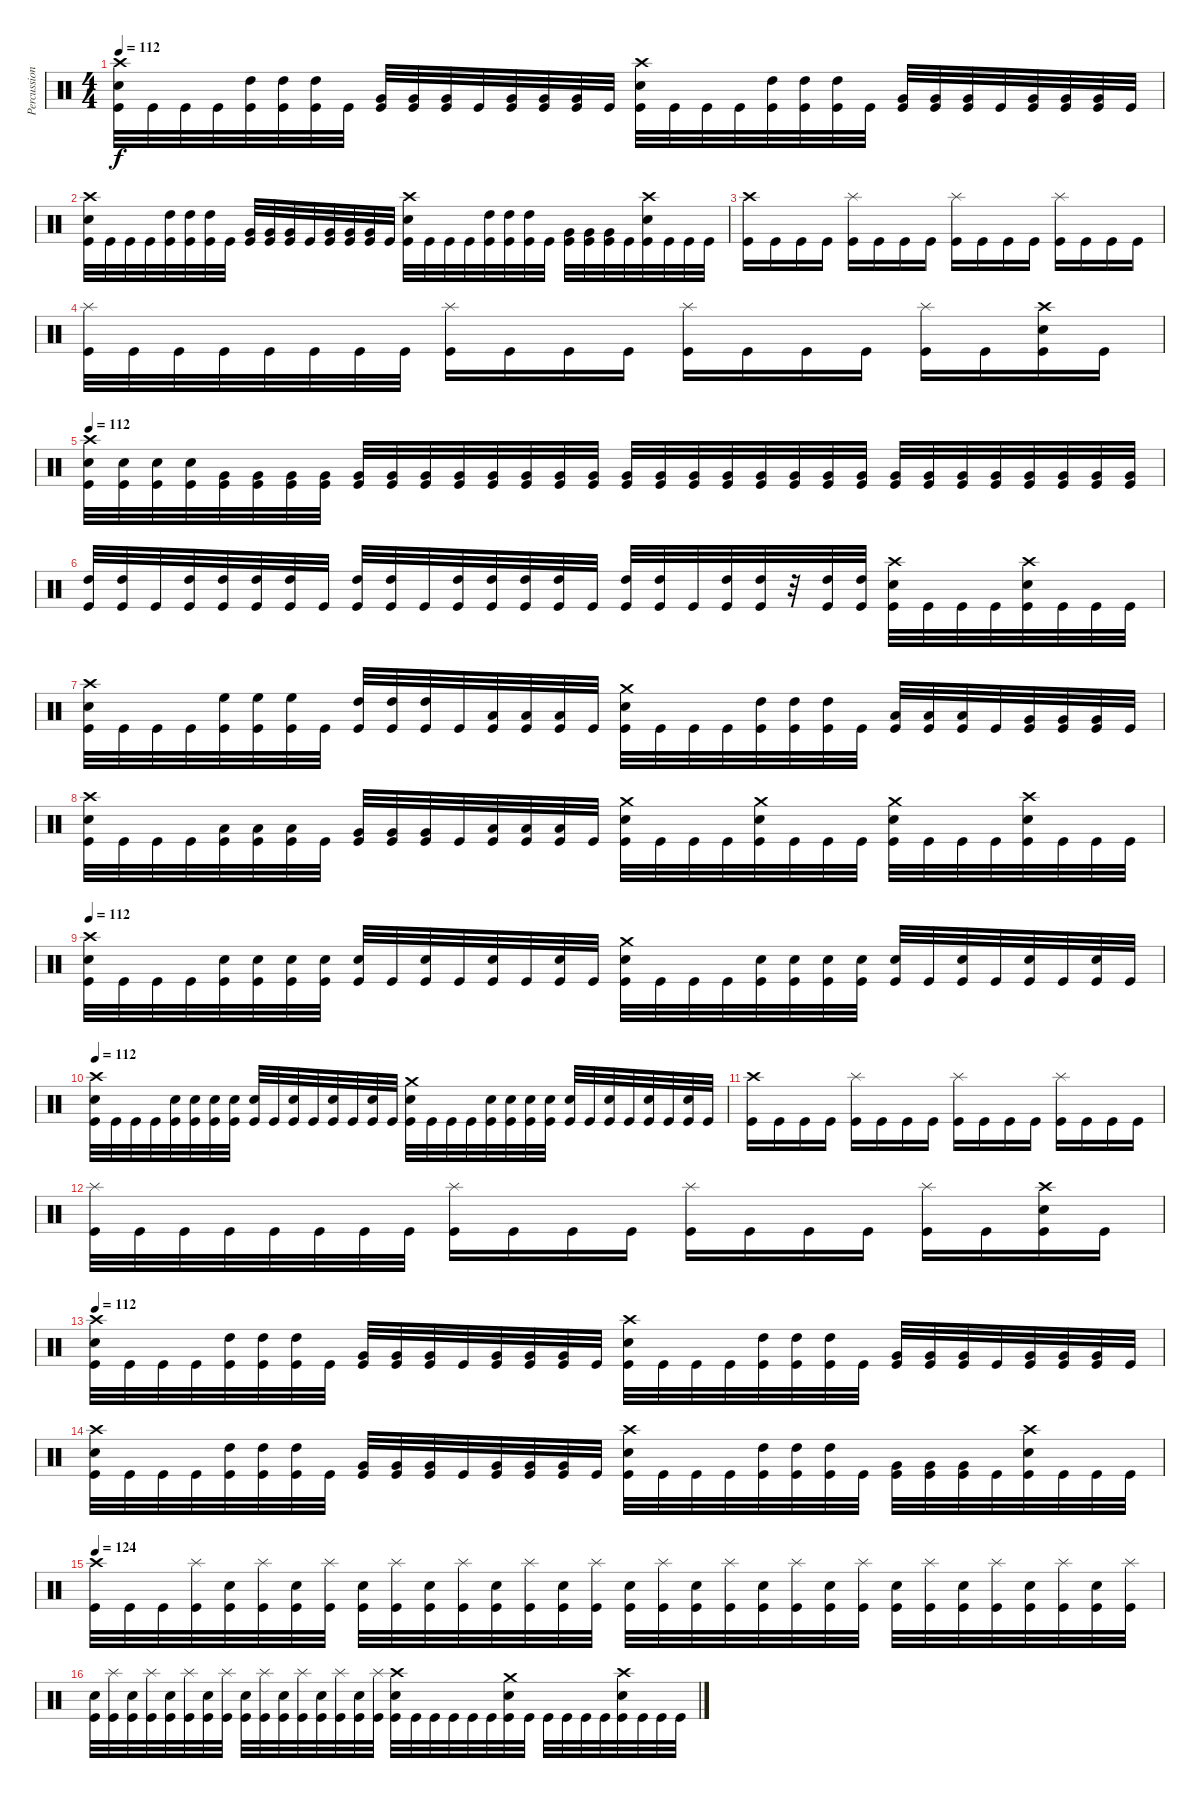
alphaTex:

\track ("Percussion" "Percussion") {instrument percussion}
\staff {score}
\articulation defaults
\ts (4 4)
\tempo 112
\clef neutral
\ks c
("Crash high (hit)" "Electric Snare (hit)" "Kick (hit)").32{dy f} "Kick (hit)".32 "Kick (hit)".32 "Kick (hit)".32 ("High Tom (hit)" "Kick (hit)").32 ("High Tom (hit)" "Kick (hit)").32 ("High Tom (hit)" "Kick (hit)").32 "Kick (hit)".32 ("Very Low Tom (hit)" "Kick (hit)").32 ("Very Low Tom (hit)" "Kick (hit)").32 ("Very Low Tom (hit)" "Kick (hit)").32 "Kick (hit)".32 ("Very Low Tom (hit)" "Kick (hit)").32 ("Very Low Tom (hit)" "Kick (hit)").32 ("Very Low Tom (hit)" "Kick (hit)").32 "Kick (hit)".32 ("Crash high (hit)" "Electric Snare (hit)" "Kick (hit)").32 "Kick (hit)".32 "Kick (hit)".32 "Kick (hit)".32 ("High Tom (hit)" "Kick (hit)").32 ("High Tom (hit)" "Kick (hit)").32 ("High Tom (hit)" "Kick (hit)").32 "Kick (hit)".32 ("Very Low Tom (hit)" "Kick (hit)").32 ("Very Low Tom (hit)" "Kick (hit)").32 ("Very Low Tom (hit)" "Kick (hit)").32 "Kick (hit)".32 ("Very Low Tom (hit)" "Kick (hit)").32 ("Very Low Tom (hit)" "Kick (hit)").32 ("Very Low Tom (hit)" "Kick (hit)").32 "Kick (hit)".32 |
("Crash high (hit)" "Electric Snare (hit)" "Kick (hit)").32 "Kick (hit)".32 "Kick (hit)".32 "Kick (hit)".32 ("High Tom (hit)" "Kick (hit)").32 ("High Tom (hit)" "Kick (hit)").32 ("High Tom (hit)" "Kick (hit)").32 "Kick (hit)".32 ("Very Low Tom (hit)" "Kick (hit)").32 ("Very Low Tom (hit)" "Kick (hit)").32 ("Very Low Tom (hit)" "Kick (hit)").32 "Kick (hit)".32 ("Very Low Tom (hit)" "Kick (hit)").32 ("Very Low Tom (hit)" "Kick (hit)").32 ("Very Low Tom (hit)" "Kick (hit)").32 "Kick (hit)".32 ("Crash high (hit)" "Electric Snare (hit)" "Kick (hit)").32 "Kick (hit)".32 "Kick (hit)".32 "Kick (hit)".32 ("High Tom (hit)" "Kick (hit)").32 ("High Tom (hit)" "Kick (hit)").32 ("High Tom (hit)" "Kick (hit)").32 "Kick (hit)".32 ("Very Low Tom (hit)" "Kick (hit)").32 ("Very Low Tom (hit)" "Kick (hit)").32 ("Very Low Tom (hit)" "Kick (hit)").32 "Kick (hit)".32 ("Crash high (hit)" "Electric Snare (hit)" "Kick (hit)").32 "Kick (hit)".32 "Kick (hit)".32 "Kick (hit)".32 |
("Crash high (hit)" "Kick (hit)").16 "Kick (hit)".16 "Kick (hit)".16 "Kick (hit)".16 ("Splash (hit)" "Kick (hit)").16 "Kick (hit)".16 "Kick (hit)".16 "Kick (hit)".16 ("Splash (hit)" "Kick (hit)").16 "Kick (hit)".16 "Kick (hit)".16 "Kick (hit)".16 ("Splash (hit)" "Kick (hit)").16 "Kick (hit)".16 "Kick (hit)".16 "Kick (hit)".16 |
("Splash (hit)" "Kick (hit)").32 "Kick (hit)".32 "Kick (hit)".32 "Kick (hit)".32 "Kick (hit)".32 "Kick (hit)".32 "Kick (hit)".32 "Kick (hit)".32 ("Splash (hit)" "Kick (hit)").16 "Kick (hit)".16 "Kick (hit)".16 "Kick (hit)".16 ("Splash (hit)" "Kick (hit)").16 "Kick (hit)".16 "Kick (hit)".16 "Kick (hit)".16 ("Splash (hit)" "Kick (hit)").16 "Kick (hit)".16 ("Crash high (hit)" "Electric Snare (hit)" "Kick (hit)").16 "Kick (hit)".16 |
\tempo 112
("Crash high (hit)" "Electric Snare (hit)" "Kick (hit)").32 ("Electric Snare (hit)" "Kick (hit)").32 ("Electric Snare (hit)" "Kick (hit)").32 ("Electric Snare (hit)" "Kick (hit)").32 ("Very Low Tom (hit)" "Kick (hit)").32 ("Very Low Tom (hit)" "Kick (hit)").32 ("Very Low Tom (hit)" "Kick (hit)").32 ("Very Low Tom (hit)" "Kick (hit)").32 ("Very Low Tom (hit)" "Kick (hit)").32 ("Very Low Tom (hit)" "Kick (hit)").32 ("Very Low Tom (hit)" "Kick (hit)").32 ("Very Low Tom (hit)" "Kick (hit)").32 ("Very Low Tom (hit)" "Kick (hit)").32 ("Very Low Tom (hit)" "Kick (hit)").32 ("Very Low Tom (hit)" "Kick (hit)").32 ("Very Low Tom (hit)" "Kick (hit)").32 ("Very Low Tom (hit)" "Kick (hit)").32 ("Very Low Tom (hit)" "Kick (hit)").32 ("Very Low Tom (hit)" "Kick (hit)").32 ("Very Low Tom (hit)" "Kick (hit)").32 ("Very Low Tom (hit)" "Kick (hit)").32 ("Very Low Tom (hit)" "Kick (hit)").32 ("Very Low Tom (hit)" "Kick (hit)").32 ("Very Low Tom (hit)" "Kick (hit)").32 ("Very Low Tom (hit)" "Kick (hit)").32 ("Very Low Tom (hit)" "Kick (hit)").32 ("Very Low Tom (hit)" "Kick (hit)").32 ("Very Low Tom (hit)" "Kick (hit)").32 ("Very Low Tom (hit)" "Kick (hit)").32 ("Very Low Tom (hit)" "Kick (hit)").32 ("Very Low Tom (hit)" "Kick (hit)").32 ("Very Low Tom (hit)" "Kick (hit)").32 |
("High Tom (hit)" "Kick (hit)").32 ("High Tom (hit)" "Kick (hit)").32 "Kick (hit)".32 ("High Tom (hit)" "Kick (hit)").32 ("High Tom (hit)" "Kick (hit)").32 ("High Tom (hit)" "Kick (hit)").32 ("High Tom (hit)" "Kick (hit)").32 "Kick (hit)".32 ("High Tom (hit)" "Kick (hit)").32 ("High Tom (hit)" "Kick (hit)").32 "Kick (hit)".32 ("High Tom (hit)" "Kick (hit)").32 ("High Tom (hit)" "Kick (hit)").32 ("High Tom (hit)" "Kick (hit)").32 ("High Tom (hit)" "Kick (hit)").32 "Kick (hit)".32 ("High Tom (hit)" "Kick (hit)").32 ("High Tom (hit)" "Kick (hit)").32 "Kick (hit)".32 ("High Tom (hit)" "Kick (hit)").32 ("High Tom (hit)" "Kick (hit)").32 r.32 ("High Tom (hit)" "Kick (hit)").32 ("High Tom (hit)" "Kick (hit)").32 ("Crash high (hit)" "Electric Snare (hit)" "Kick (hit)").32 "Kick (hit)".32 "Kick (hit)".32 "Kick (hit)".32 ("Crash high (hit)" "Electric Snare (hit)" "Kick (hit)").32 "Kick (hit)".32 "Kick (hit)".32 "Kick (hit)".32 |
("Crash high (hit)" "Electric Snare (hit)" "Kick (hit)").32 "Kick (hit)".32 "Kick (hit)".32 "Kick (hit)".32 ("High Floor Tom (hit)" "Kick (hit)").32 ("High Floor Tom (hit)" "Kick (hit)").32 ("High Floor Tom (hit)" "Kick (hit)").32 "Kick (hit)".32 ("High Tom (hit)" "Kick (hit)").32 ("High Tom (hit)" "Kick (hit)").32 ("High Tom (hit)" "Kick (hit)").32 "Kick (hit)".32 ("Low Tom (hit)" "Kick (hit)").32 ("Low Tom (hit)" "Kick (hit)").32 ("Low Tom (hit)" "Kick (hit)").32 "Kick (hit)".32 ("Crash medium (hit)" "Electric Snare (hit)" "Kick (hit)").32 "Kick (hit)".32 "Kick (hit)".32 "Kick (hit)".32 ("High Tom (hit)" "Kick (hit)").32 ("High Tom (hit)" "Kick (hit)").32 ("High Tom (hit)" "Kick (hit)").32 "Kick (hit)".32 ("Low Tom (hit)" "Kick (hit)").32 ("Low Tom (hit)" "Kick (hit)").32 ("Low Tom (hit)" "Kick (hit)").32 "Kick (hit)".32 ("Very Low Tom (hit)" "Kick (hit)").32 ("Very Low Tom (hit)" "Kick (hit)").32 ("Very Low Tom (hit)" "Kick (hit)").32 "Kick (hit)".32 |
("Crash high (hit)" "Electric Snare (hit)" "Kick (hit)").32 "Kick (hit)".32 "Kick (hit)".32 "Kick (hit)".32 ("Low Tom (hit)" "Kick (hit)").32 ("Low Tom (hit)" "Kick (hit)").32 ("Low Tom (hit)" "Kick (hit)").32 "Kick (hit)".32 ("Very Low Tom (hit)" "Kick (hit)").32 ("Very Low Tom (hit)" "Kick (hit)").32 ("Very Low Tom (hit)" "Kick (hit)").32 "Kick (hit)".32 ("Low Floor Tom (hit)" "Kick (hit)").32 ("Low Floor Tom (hit)" "Kick (hit)").32 ("Low Floor Tom (hit)" "Kick (hit)").32 "Kick (hit)".32 ("Crash medium (hit)" "Electric Snare (hit)" "Kick (hit)").32 "Kick (hit)".32 "Kick (hit)".32 "Kick (hit)".32 ("Crash medium (hit)" "Electric Snare (hit)" "Kick (hit)").32 "Kick (hit)".32 "Kick (hit)".32 "Kick (hit)".32 ("Crash medium (hit)" "Electric Snare (hit)" "Kick (hit)").32 "Kick (hit)".32 "Kick (hit)".32 "Kick (hit)".32 ("Crash high (hit)" "Electric Snare (hit)" "Kick (hit)").32 "Kick (hit)".32 "Kick (hit)".32 "Kick (hit)".32 |
\tempo 112
("Crash high (hit)" "Electric Snare (hit)" "Kick (hit)").32 "Kick (hit)".32 "Kick (hit)".32 "Kick (hit)".32 ("Electric Snare (hit)" "Kick (hit)").32 ("Electric Snare (hit)" "Kick (hit)").32 ("Electric Snare (hit)" "Kick (hit)").32 ("Electric Snare (hit)" "Kick (hit)").32 ("Electric Snare (hit)"{pm} "Kick (hit)").32 "Kick (hit)".32 ("Electric Snare (hit)"{pm} "Kick (hit)").32 "Kick (hit)".32 ("Electric Snare (hit)"{pm} "Kick (hit)").32 "Kick (hit)".32 ("Electric Snare (hit)"{pm} "Kick (hit)").32 "Kick (hit)".32 ("Crash medium (hit)" "Electric Snare (hit)" "Kick (hit)").32 "Kick (hit)".32 "Kick (hit)".32 "Kick (hit)".32 ("Electric Snare (hit)" "Kick (hit)").32 ("Electric Snare (hit)" "Kick (hit)").32 ("Electric Snare (hit)" "Kick (hit)").32 ("Electric Snare (hit)" "Kick (hit)").32 ("Electric Snare (hit)"{pm} "Kick (hit)").32 "Kick (hit)".32 ("Electric Snare (hit)"{pm} "Kick (hit)").32 "Kick (hit)".32 ("Electric Snare (hit)"{pm} "Kick (hit)").32 "Kick (hit)".32 ("Electric Snare (hit)"{pm} "Kick (hit)").32 "Kick (hit)".32 |
\tempo 112
("Crash high (hit)" "Electric Snare (hit)" "Kick (hit)").32 "Kick (hit)".32 "Kick (hit)".32 "Kick (hit)".32 ("Electric Snare (hit)" "Kick (hit)").32 ("Electric Snare (hit)" "Kick (hit)").32 ("Electric Snare (hit)" "Kick (hit)").32 ("Electric Snare (hit)" "Kick (hit)").32 ("Electric Snare (hit)" "Kick (hit)").32 "Kick (hit)".32 ("Electric Snare (hit)" "Kick (hit)").32 "Kick (hit)".32 ("Electric Snare (hit)" "Kick (hit)").32 "Kick (hit)".32 ("Electric Snare (hit)" "Kick (hit)").32 "Kick (hit)".32 ("Crash medium (hit)" "Electric Snare (hit)" "Kick (hit)").32 "Kick (hit)".32 "Kick (hit)".32 "Kick (hit)".32 ("Electric Snare (hit)" "Kick (hit)").32 ("Electric Snare (hit)" "Kick (hit)").32 ("Electric Snare (hit)" "Kick (hit)").32 ("Electric Snare (hit)" "Kick (hit)").32 ("Electric Snare (hit)" "Kick (hit)").32 "Kick (hit)".32 ("Electric Snare (hit)" "Kick (hit)").32 "Kick (hit)".32 ("Electric Snare (hit)" "Kick (hit)").32 "Kick (hit)".32 ("Electric Snare (hit)" "Kick (hit)").32 "Kick (hit)".32 |
("Crash high (hit)" "Kick (hit)").16 "Kick (hit)".16 "Kick (hit)".16 "Kick (hit)".16 ("Splash (hit)" "Kick (hit)").16 "Kick (hit)".16 "Kick (hit)".16 "Kick (hit)".16 ("Splash (hit)" "Kick (hit)").16 "Kick (hit)".16 "Kick (hit)".16 "Kick (hit)".16 ("Splash (hit)" "Kick (hit)").16 "Kick (hit)".16 "Kick (hit)".16 "Kick (hit)".16 |
("Splash (hit)" "Kick (hit)").32 "Kick (hit)".32 "Kick (hit)".32 "Kick (hit)".32 "Kick (hit)".32 "Kick (hit)".32 "Kick (hit)".32 "Kick (hit)".32 ("Splash (hit)" "Kick (hit)").16 "Kick (hit)".16 "Kick (hit)".16 "Kick (hit)".16 ("Splash (hit)" "Kick (hit)").16 "Kick (hit)".16 "Kick (hit)".16 "Kick (hit)".16 ("Splash (hit)" "Kick (hit)").16 "Kick (hit)".16 ("Crash high (hit)" "Electric Snare (hit)" "Kick (hit)").16 "Kick (hit)".16 |
\tempo 112
("Crash high (hit)" "Electric Snare (hit)" "Kick (hit)").32 "Kick (hit)".32 "Kick (hit)".32 "Kick (hit)".32 ("High Tom (hit)" "Kick (hit)").32 ("High Tom (hit)" "Kick (hit)").32 ("High Tom (hit)" "Kick (hit)").32 "Kick (hit)".32 ("Very Low Tom (hit)" "Kick (hit)").32 ("Very Low Tom (hit)" "Kick (hit)").32 ("Very Low Tom (hit)" "Kick (hit)").32 "Kick (hit)".32 ("Very Low Tom (hit)" "Kick (hit)").32 ("Very Low Tom (hit)" "Kick (hit)").32 ("Very Low Tom (hit)" "Kick (hit)").32 "Kick (hit)".32 ("Crash high (hit)" "Electric Snare (hit)" "Kick (hit)").32 "Kick (hit)".32 "Kick (hit)".32 "Kick (hit)".32 ("High Tom (hit)" "Kick (hit)").32 ("High Tom (hit)" "Kick (hit)").32 ("High Tom (hit)" "Kick (hit)").32 "Kick (hit)".32 ("Very Low Tom (hit)" "Kick (hit)").32 ("Very Low Tom (hit)" "Kick (hit)").32 ("Very Low Tom (hit)" "Kick (hit)").32 "Kick (hit)".32 ("Very Low Tom (hit)" "Kick (hit)").32 ("Very Low Tom (hit)" "Kick (hit)").32 ("Very Low Tom (hit)" "Kick (hit)").32 "Kick (hit)".32 |
("Crash high (hit)" "Electric Snare (hit)" "Kick (hit)").32 "Kick (hit)".32 "Kick (hit)".32 "Kick (hit)".32 ("High Tom (hit)" "Kick (hit)").32 ("High Tom (hit)" "Kick (hit)").32 ("High Tom (hit)" "Kick (hit)").32 "Kick (hit)".32 ("Very Low Tom (hit)" "Kick (hit)").32 ("Very Low Tom (hit)" "Kick (hit)").32 ("Very Low Tom (hit)" "Kick (hit)").32 "Kick (hit)".32 ("Very Low Tom (hit)" "Kick (hit)").32 ("Very Low Tom (hit)" "Kick (hit)").32 ("Very Low Tom (hit)" "Kick (hit)").32 "Kick (hit)".32 ("Crash high (hit)" "Electric Snare (hit)" "Kick (hit)").32 "Kick (hit)".32 "Kick (hit)".32 "Kick (hit)".32 ("High Tom (hit)" "Kick (hit)").32 ("High Tom (hit)" "Kick (hit)").32 ("High Tom (hit)" "Kick (hit)").32 "Kick (hit)".32 ("Very Low Tom (hit)" "Kick (hit)").32 ("Very Low Tom (hit)" "Kick (hit)").32 ("Very Low Tom (hit)" "Kick (hit)").32 "Kick (hit)".32 ("Crash high (hit)" "Electric Snare (hit)" "Kick (hit)").32 "Kick (hit)".32 "Kick (hit)".32 "Kick (hit)".32 |
\tempo 124
("Crash high (hit)" "Kick (hit)").32 "Kick (hit)".32 "Kick (hit)".32 ("Splash (hit)" "Kick (hit)").32 ("Electric Snare (hit)" "Kick (hit)").32 ("Splash (hit)" "Kick (hit)").32 ("Electric Snare (hit)" "Kick (hit)").32 ("Splash (hit)" "Kick (hit)").32 ("Electric Snare (hit)" "Kick (hit)").32 ("Splash (hit)" "Kick (hit)").32 ("Electric Snare (hit)" "Kick (hit)").32 ("Splash (hit)" "Kick (hit)").32 ("Electric Snare (hit)" "Kick (hit)").32 ("Splash (hit)" "Kick (hit)").32 ("Electric Snare (hit)" "Kick (hit)").32 ("Splash (hit)" "Kick (hit)").32 ("Electric Snare (hit)" "Kick (hit)").32 ("Splash (hit)" "Kick (hit)").32 ("Electric Snare (hit)" "Kick (hit)").32 ("Splash (hit)" "Kick (hit)").32 ("Electric Snare (hit)" "Kick (hit)").32 ("Splash (hit)" "Kick (hit)").32 ("Electric Snare (hit)" "Kick (hit)").32 ("Splash (hit)" "Kick (hit)").32 ("Electric Snare (hit)" "Kick (hit)").32 ("Splash (hit)" "Kick (hit)").32 ("Electric Snare (hit)" "Kick (hit)").32 ("Splash (hit)" "Kick (hit)").32 ("Electric Snare (hit)" "Kick (hit)").32 ("Splash (hit)" "Kick (hit)").32 ("Electric Snare (hit)" "Kick (hit)").32 ("Splash (hit)" "Kick (hit)").32 |
("Electric Snare (hit)" "Kick (hit)").32 ("Splash (hit)" "Kick (hit)").32 ("Electric Snare (hit)" "Kick (hit)").32 ("Splash (hit)" "Kick (hit)").32 ("Electric Snare (hit)" "Kick (hit)").32 ("Splash (hit)" "Kick (hit)").32 ("Electric Snare (hit)" "Kick (hit)").32 ("Splash (hit)" "Kick (hit)").32 ("Electric Snare (hit)" "Kick (hit)").32 ("Splash (hit)" "Kick (hit)").32 ("Electric Snare (hit)" "Kick (hit)").32 ("Splash (hit)" "Kick (hit)").32 ("Electric Snare (hit)" "Kick (hit)").32 ("Splash (hit)" "Kick (hit)").32 ("Electric Snare (hit)" "Kick (hit)").32 ("Splash (hit)" "Kick (hit)").32 ("Crash high (hit)" "Electric Snare (hit)" "Kick (hit)").32 "Kick (hit)".32 "Kick (hit)".32 "Kick (hit)".32 "Kick (hit)".32 "Kick (hit)".32 ("Crash medium (hit)" "Electric Snare (hit)" "Kick (hit)").32 "Kick (hit)".32 "Kick (hit)".32 "Kick (hit)".32 "Kick (hit)".32 "Kick (hit)".32 ("Crash high (hit)" "Electric Snare (hit)" "Kick (hit)").32 "Kick (hit)".32 "Kick (hit)".32 "Kick (hit)".32
